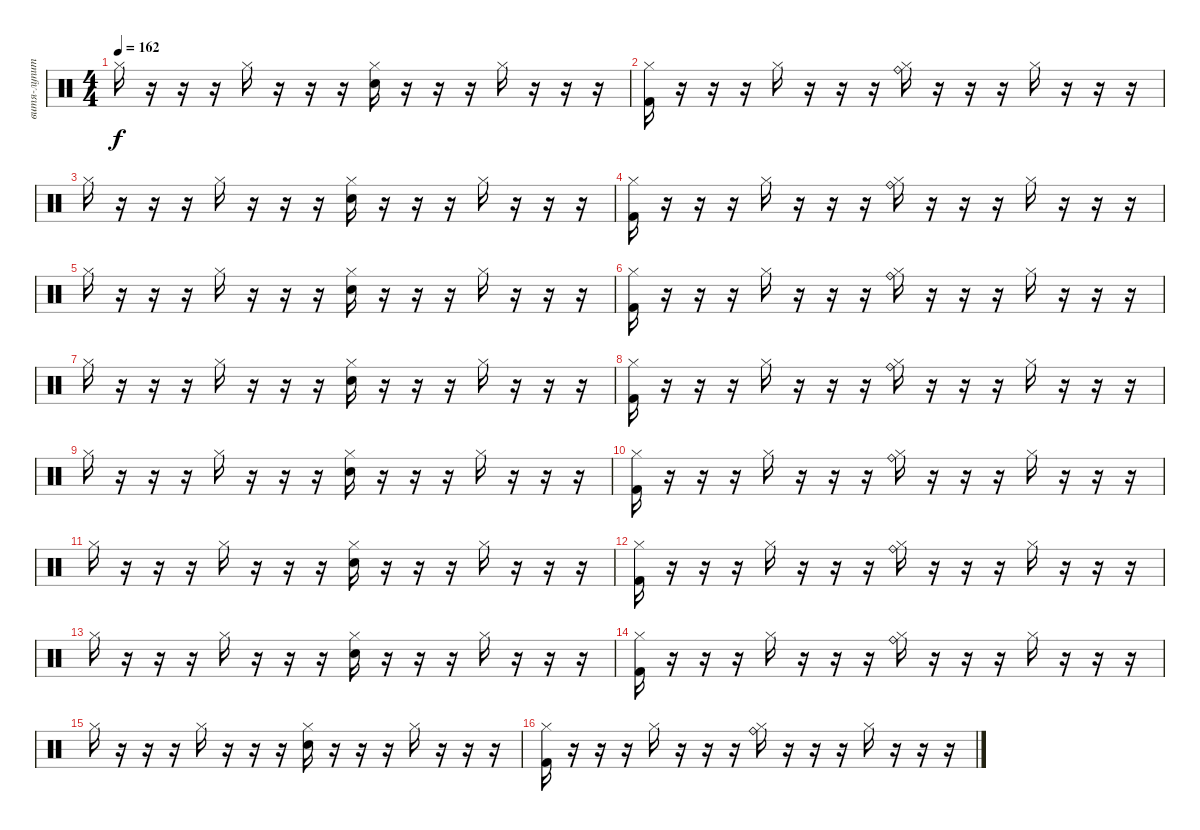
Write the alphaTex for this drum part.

\track ("витя-лупит" "витя-лупит") {instrument percussion}
\staff {score}
\articulation defaults
\ts (4 4)
\tempo 162
\clef neutral
\ks c "Hi-Hat (closed)".16{dy f}
r.16 r.16 r.16 "Hi-Hat (closed)".16 r.16 r.16 r.16 ("Snare (hit) 2" "Hi-Hat (closed)").16 r.16 r.16 r.16 "Hi-Hat (closed)".16 r.16 r.16 r.16 |
("Kick (hit) 2" "Hi-Hat (closed)").16 r.16 r.16 r.16 "Hi-Hat (closed)".16 r.16 r.16 r.16 ("Ride (bell)" "Hi-Hat (closed)").16 r.16 r.16 r.16 "Hi-Hat (closed)".16 r.16 r.16 r.16 |
"Hi-Hat (closed)".16 r.16 r.16 r.16 "Hi-Hat (closed)".16 r.16 r.16 r.16 ("Snare (hit) 2" "Hi-Hat (closed)").16 r.16 r.16 r.16 "Hi-Hat (closed)".16 r.16 r.16 r.16 |
("Kick (hit) 2" "Hi-Hat (closed)").16 r.16 r.16 r.16 "Hi-Hat (closed)".16 r.16 r.16 r.16 ("Ride (bell)" "Hi-Hat (closed)").16 r.16 r.16 r.16 "Hi-Hat (closed)".16 r.16 r.16 r.16 |
"Hi-Hat (closed)".16 r.16 r.16 r.16 "Hi-Hat (closed)".16 r.16 r.16 r.16 ("Snare (hit) 2" "Hi-Hat (closed)").16 r.16 r.16 r.16 "Hi-Hat (closed)".16 r.16 r.16 r.16 |
("Kick (hit) 2" "Hi-Hat (closed)").16 r.16 r.16 r.16 "Hi-Hat (closed)".16 r.16 r.16 r.16 ("Ride (bell)" "Hi-Hat (closed)").16 r.16 r.16 r.16 "Hi-Hat (closed)".16 r.16 r.16 r.16 |
"Hi-Hat (closed)".16 r.16 r.16 r.16 "Hi-Hat (closed)".16 r.16 r.16 r.16 ("Snare (hit) 2" "Hi-Hat (closed)").16 r.16 r.16 r.16 "Hi-Hat (closed)".16 r.16 r.16 r.16 |
("Kick (hit) 2" "Hi-Hat (closed)").16 r.16 r.16 r.16 "Hi-Hat (closed)".16 r.16 r.16 r.16 ("Ride (bell)" "Hi-Hat (closed)").16 r.16 r.16 r.16 "Hi-Hat (closed)".16 r.16 r.16 r.16 |
"Hi-Hat (closed)".16 r.16 r.16 r.16 "Hi-Hat (closed)".16 r.16 r.16 r.16 ("Snare (hit) 2" "Hi-Hat (closed)").16 r.16 r.16 r.16 "Hi-Hat (closed)".16 r.16 r.16 r.16 |
("Kick (hit) 2" "Hi-Hat (closed)").16 r.16 r.16 r.16 "Hi-Hat (closed)".16 r.16 r.16 r.16 ("Ride (bell)" "Hi-Hat (closed)").16 r.16 r.16 r.16 "Hi-Hat (closed)".16 r.16 r.16 r.16 |
"Hi-Hat (closed)".16 r.16 r.16 r.16 "Hi-Hat (closed)".16 r.16 r.16 r.16 ("Snare (hit) 2" "Hi-Hat (closed)").16 r.16 r.16 r.16 "Hi-Hat (closed)".16 r.16 r.16 r.16 |
("Kick (hit) 2" "Hi-Hat (closed)").16 r.16 r.16 r.16 "Hi-Hat (closed)".16 r.16 r.16 r.16 ("Ride (bell)" "Hi-Hat (closed)").16 r.16 r.16 r.16 "Hi-Hat (closed)".16 r.16 r.16 r.16 |
"Hi-Hat (closed)".16 r.16 r.16 r.16 "Hi-Hat (closed)".16 r.16 r.16 r.16 ("Snare (hit) 2" "Hi-Hat (closed)").16 r.16 r.16 r.16 "Hi-Hat (closed)".16 r.16 r.16 r.16 |
("Kick (hit) 2" "Hi-Hat (closed)").16 r.16 r.16 r.16 "Hi-Hat (closed)".16 r.16 r.16 r.16 ("Ride (bell)" "Hi-Hat (closed)").16 r.16 r.16 r.16 "Hi-Hat (closed)".16 r.16 r.16 r.16 |
"Hi-Hat (closed)".16 r.16 r.16 r.16 "Hi-Hat (closed)".16 r.16 r.16 r.16 ("Snare (hit) 2" "Hi-Hat (closed)").16 r.16 r.16 r.16 "Hi-Hat (closed)".16 r.16 r.16 r.16 |
("Kick (hit) 2" "Hi-Hat (closed)").16 r.16 r.16 r.16 "Hi-Hat (closed)".16 r.16 r.16 r.16 ("Ride (bell)" "Hi-Hat (closed)").16 r.16 r.16 r.16 "Hi-Hat (closed)".16 r.16 r.16 r.16
